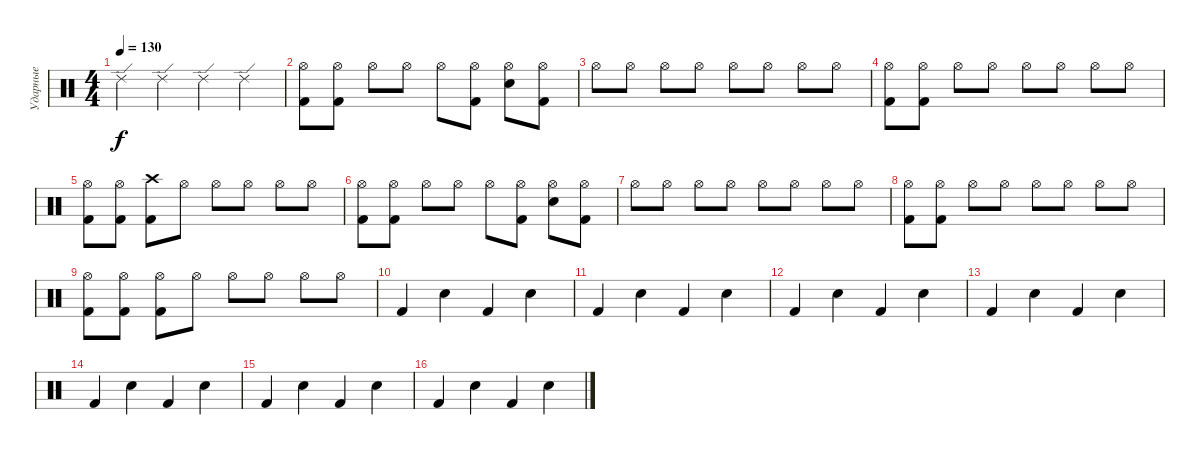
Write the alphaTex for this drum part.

\track ("Ударные" "Ударные") {instrument percussion}
\staff {score}
\articulation defaults
\ts (4 4)
\tempo 130
\clef neutral
\ks c "Ride (edge) 2".4{dy f} "Ride (edge) 2".4 "Ride (edge) 2".4 "Ride (edge) 2".4
|
("Hi-Hat (open)" "Kick (hit) 2").8 ("Hi-Hat (open)" "Kick (hit) 2").8 "Hi-Hat (open)".8 "Hi-Hat (open)".8 "Hi-Hat (open)".8 ("Hi-Hat (open)" "Kick (hit) 2").8 ("Hi-Hat (open)" "Electric Snare (hit)").8 ("Hi-Hat (open)" "Kick (hit) 2").8 |
"Hi-Hat (open)".8 "Hi-Hat (open)".8 "Hi-Hat (open)".8 "Hi-Hat (open)".8 "Hi-Hat (open)".8 "Hi-Hat (open)".8 "Hi-Hat (open)".8 "Hi-Hat (open)".8 |
("Hi-Hat (open)" "Kick (hit) 2").8 ("Hi-Hat (open)" "Kick (hit) 2").8 "Hi-Hat (open)".8 "Hi-Hat (open)".8 "Hi-Hat (open)".8 "Hi-Hat (open)".8 "Hi-Hat (open)".8 "Hi-Hat (open)".8 |
("Hi-Hat (open)" "Kick (hit) 2").8 ("Hi-Hat (open)" "Kick (hit) 2").8 ("Crash high (hit)" "Kick (hit) 2").8 "Hi-Hat (open)".8 "Hi-Hat (open)".8 "Hi-Hat (open)".8 "Hi-Hat (open)".8 "Hi-Hat (open)".8 |
("Hi-Hat (open)" "Kick (hit) 2").8 ("Hi-Hat (open)" "Kick (hit) 2").8 "Hi-Hat (open)".8 "Hi-Hat (open)".8 "Hi-Hat (open)".8 ("Hi-Hat (open)" "Kick (hit) 2").8 ("Hi-Hat (open)" "Electric Snare (hit)").8 ("Hi-Hat (open)" "Kick (hit) 2").8 |
"Hi-Hat (open)".8 "Hi-Hat (open)".8 "Hi-Hat (open)".8 "Hi-Hat (open)".8 "Hi-Hat (open)".8 "Hi-Hat (open)".8 "Hi-Hat (open)".8 "Hi-Hat (open)".8 |
("Hi-Hat (open)" "Kick (hit) 2").8 ("Hi-Hat (open)" "Kick (hit) 2").8 "Hi-Hat (open)".8 "Hi-Hat (open)".8 "Hi-Hat (open)".8 "Hi-Hat (open)".8 "Hi-Hat (open)".8 "Hi-Hat (open)".8 |
("Hi-Hat (open)" "Kick (hit) 2").8 ("Hi-Hat (open)" "Kick (hit) 2").8 ("Hi-Hat (open)" "Kick (hit) 2").8 "Hi-Hat (open)".8 "Hi-Hat (open)".8 "Hi-Hat (open)".8 "Hi-Hat (open)".8 "Hi-Hat (open)".8 |
"Kick (hit) 2".4 "Electric Snare (hit)".4 "Kick (hit) 2".4 "Electric Snare (hit)".4 |
"Kick (hit) 2".4 "Electric Snare (hit)".4 "Kick (hit) 2".4 "Electric Snare (hit)".4 |
"Kick (hit) 2".4 "Electric Snare (hit)".4 "Kick (hit) 2".4 "Electric Snare (hit)".4 |
"Kick (hit) 2".4 "Electric Snare (hit)".4 "Kick (hit) 2".4 "Electric Snare (hit)".4 |
"Kick (hit) 2".4 "Electric Snare (hit)".4 "Kick (hit) 2".4 "Electric Snare (hit)".4 |
"Kick (hit) 2".4 "Electric Snare (hit)".4 "Kick (hit) 2".4 "Electric Snare (hit)".4 |
"Kick (hit) 2".4 "Electric Snare (hit)".4 "Kick (hit) 2".4 "Electric Snare (hit)".4
